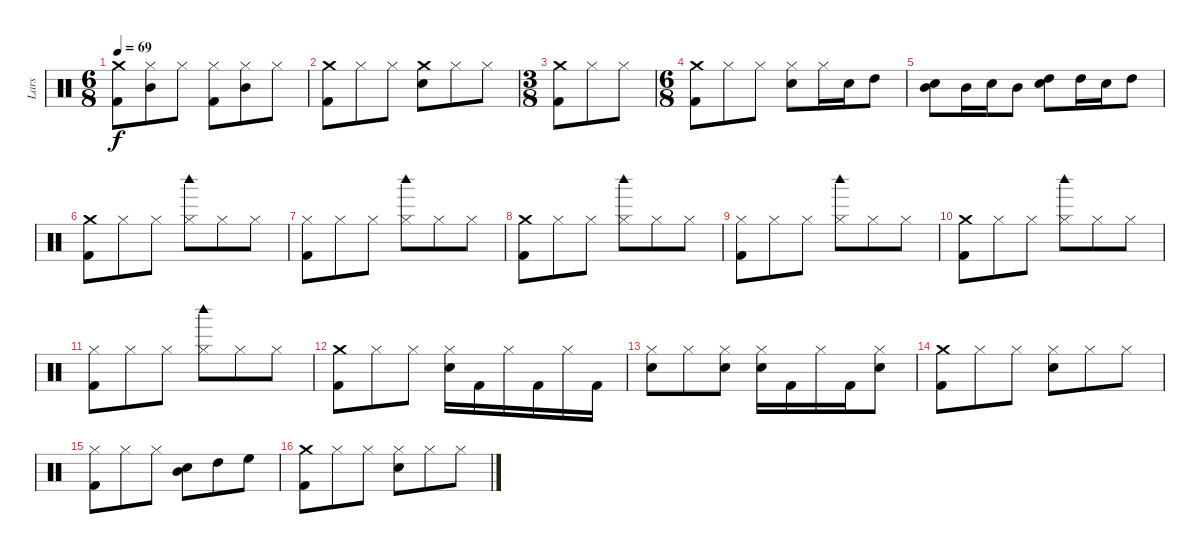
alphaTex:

\track ("Lars" "Lars") {instrument percussion}
\staff {score}
\articulation defaults
\ts (6 8)
\tempo 69
\clef neutral
\ks c
("Kick (hit) 2" "Crash medium (hit)").8{dy f} ("Mid Tom (hit)" "Hi-Hat (closed)").8 "Hi-Hat (closed)".8 ("Kick (hit) 2" "Hi-Hat (closed)").8 ("Mid Tom (hit)" "Hi-Hat (closed)").8 "Hi-Hat (closed)".8 |
("Kick (hit) 2" "Crash medium (hit)").8 "Hi-Hat (closed)".8 "Hi-Hat (closed)".8 ("Snare (hit) 2" "Crash medium (hit)").8 "Hi-Hat (closed)".8 "Hi-Hat (closed)".8 |
\ts (3 8)
("Kick (hit) 2" "Crash medium (hit)").8 "Hi-Hat (closed)".8 "Hi-Hat (closed)".8 |
\ts (6 8)
("Kick (hit) 2" "Crash medium (hit)").8 "Hi-Hat (closed)".8 "Hi-Hat (closed)".8 ("Snare (hit) 2" "Hi-Hat (closed)").8 "Hi-Hat (closed)".16 "Snare (hit) 2".16 "High Tom (hit)".8 |
("Mid Tom (hit)" "Snare (hit) 2").8 "Mid Tom (hit)".16 "Snare (hit) 2".16 "Mid Tom (hit)".8 ("High Tom (hit)" "Snare (hit) 2").8 "High Tom (hit)".16 "Snare (hit) 2".16 "High Tom (hit)".8 |
("Kick (hit) 2" "Crash medium (hit)").8 "Hi-Hat (closed)".8 "Hi-Hat (closed)".8 ("Woodblock high (hit)" "Hi-Hat (closed)").8 "Hi-Hat (closed)".8 "Hi-Hat (closed)".8 |
("Kick (hit) 2" "Hi-Hat (closed)").8 "Hi-Hat (closed)".8 "Hi-Hat (closed)".8 ("Woodblock high (hit)" "Hi-Hat (closed)").8 "Hi-Hat (closed)".8 "Hi-Hat (closed)".8 |
("Kick (hit) 2" "Crash medium (hit)").8 "Hi-Hat (closed)".8 "Hi-Hat (closed)".8 ("Woodblock high (hit)" "Hi-Hat (closed)").8 "Hi-Hat (closed)".8 "Hi-Hat (closed)".8 |
("Kick (hit) 2" "Hi-Hat (closed)").8 "Hi-Hat (closed)".8 "Hi-Hat (closed)".8 ("Woodblock high (hit)" "Hi-Hat (closed)").8 "Hi-Hat (closed)".8 "Hi-Hat (closed)".8 |
("Kick (hit) 2" "Crash medium (hit)").8 "Hi-Hat (closed)".8 "Hi-Hat (closed)".8 ("Woodblock high (hit)" "Hi-Hat (closed)").8 "Hi-Hat (closed)".8 "Hi-Hat (closed)".8 |
("Kick (hit) 2" "Hi-Hat (closed)").8 "Hi-Hat (closed)".8 "Hi-Hat (closed)".8 ("Woodblock high (hit)" "Hi-Hat (closed)").8 "Hi-Hat (closed)".8 "Hi-Hat (closed)".8 |
("Kick (hit) 2" "Crash medium (hit)").8 "Hi-Hat (closed)".8 "Hi-Hat (closed)".8 ("Snare (hit) 2" "Hi-Hat (closed)").16 "Kick (hit) 2".16 "Hi-Hat (closed)".16 "Kick (hit) 2".16 "Hi-Hat (closed)".16 "Kick (hit) 2".16 |
("Snare (hit) 2" "Hi-Hat (closed)").8 "Hi-Hat (closed)".8 ("Snare (hit) 2" "Hi-Hat (closed)").8 ("Snare (hit) 2" "Hi-Hat (closed)").16 "Kick (hit) 2".16 "Hi-Hat (closed)".16 "Kick (hit) 2".16 ("Snare (hit) 2" "Hi-Hat (closed)").8 |
("Kick (hit) 2" "Crash medium (hit)").8 "Hi-Hat (closed)".8 "Hi-Hat (closed)".8 ("Snare (hit) 2" "Hi-Hat (closed)").8 "Hi-Hat (closed)".8 "Hi-Hat (closed)".8 |
("Kick (hit) 2" "Hi-Hat (closed)").8 "Hi-Hat (closed)".8 "Hi-Hat (closed)".8 ("Snare (hit) 2" "Mid Tom (hit)").8 "High Tom (hit)".8 "High Floor Tom (hit)".8 |
("Kick (hit) 2" "Crash medium (hit)").8 "Hi-Hat (closed)".8 "Hi-Hat (closed)".8 ("Snare (hit) 2" "Hi-Hat (closed)").8 "Hi-Hat (closed)".8 "Hi-Hat (closed)".8
